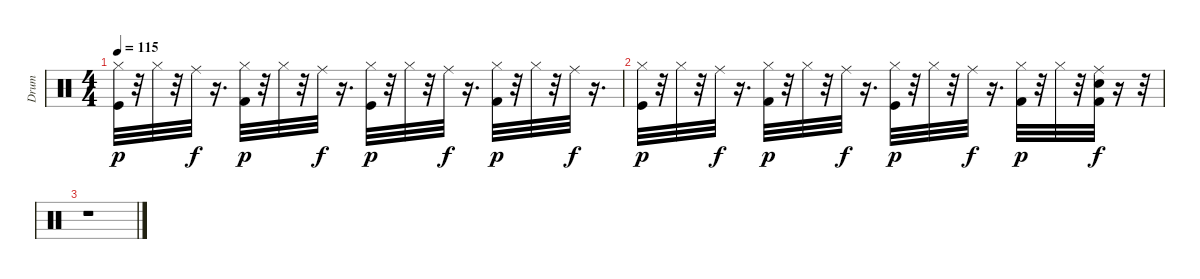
\track ("Drum" "Drum") {instrument percussion}
\staff {score}
\articulation defaults
\ts (4 4)
\tempo 115
\clef neutral
\ks c
("Hi-Hat (closed)" "Kick (hit)").32{dy p} r.32 "Hi-Hat (closed)".32 r.32 "Ride (middle)".32{dy f} r.16{d} ("Hi-Hat (closed)" "Kick (hit) 2").32{dy p} r.32 "Hi-Hat (closed)".32 r.32 "Ride (middle)".32{dy f} r.16{d} ("Hi-Hat (closed)" "Kick (hit)").32{dy p} r.32 "Hi-Hat (closed)".32 r.32 "Ride (middle)".32{dy f} r.16{d} ("Hi-Hat (closed)" "Kick (hit) 2").32{dy p} r.32 "Hi-Hat (closed)".32 r.32 "Ride (middle)".32{dy f} r.16{d} |
("Hi-Hat (closed)" "Kick (hit)").32{dy p} r.32 "Hi-Hat (closed)".32 r.32 "Ride (middle)".32{dy f} r.16{d} ("Hi-Hat (closed)" "Kick (hit) 2").32{dy p} r.32 "Hi-Hat (closed)".32 r.32 "Ride (middle)".32{dy f} r.16{d} ("Hi-Hat (closed)" "Kick (hit)").32{dy p} r.32 "Hi-Hat (closed)".32 r.32 "Ride (middle)".32{dy f} r.16{d} ("Kick (hit) 2" "Hi-Hat (closed)").32{dy p} r.32 "Hi-Hat (closed)".32 r.32 ("Ride (middle)" "Electric Snare (hit)" "Kick (hit) 2").32{dy f} r.16 r.32 |
r.1
